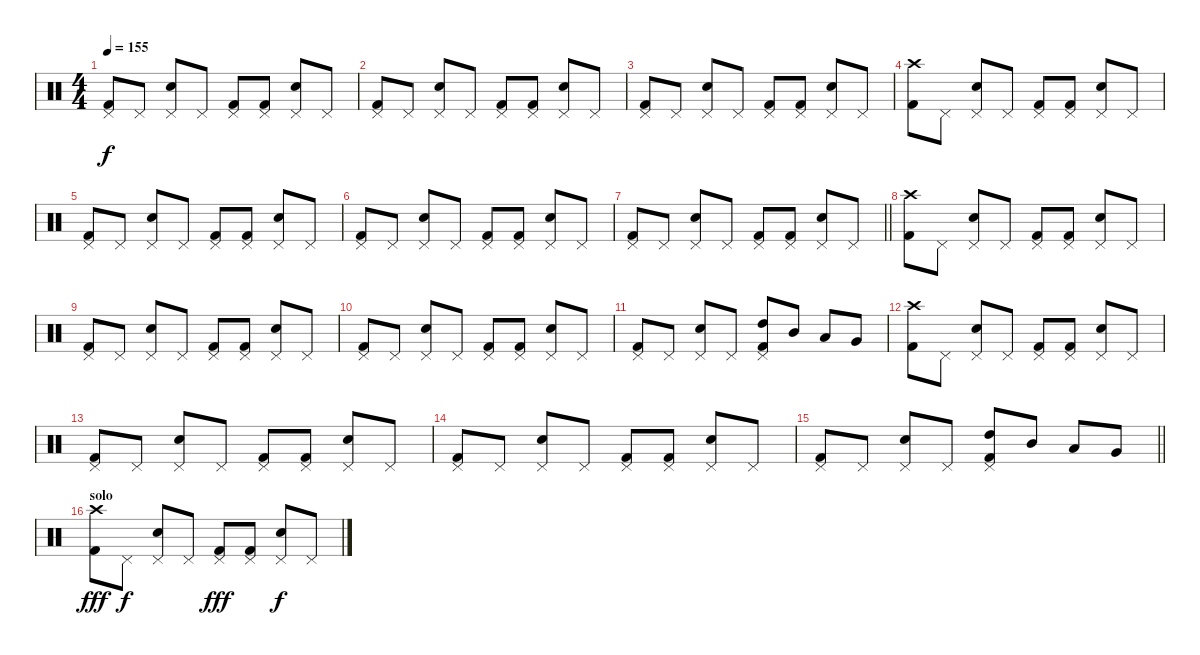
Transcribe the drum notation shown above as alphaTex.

\track "" {instrument percussion}
\staff {score}
\articulation defaults
\ts (4 4)
\tempo 155
\clef neutral
\ks c
("Pedal Hi-Hat (hit)" "Kick (hit) 2").8{dy f} "Pedal Hi-Hat (hit)".8 ("Pedal Hi-Hat (hit)" "Electric Snare (hit)").8 "Pedal Hi-Hat (hit)".8 ("Pedal Hi-Hat (hit)" "Kick (hit) 2").8 ("Pedal Hi-Hat (hit)" "Kick (hit) 2").8 ("Pedal Hi-Hat (hit)" "Electric Snare (hit)").8 "Pedal Hi-Hat (hit)".8 |
("Pedal Hi-Hat (hit)" "Kick (hit) 2").8 "Pedal Hi-Hat (hit)".8 ("Pedal Hi-Hat (hit)" "Electric Snare (hit)").8 "Pedal Hi-Hat (hit)".8 ("Pedal Hi-Hat (hit)" "Kick (hit) 2").8 ("Pedal Hi-Hat (hit)" "Kick (hit) 2").8 ("Pedal Hi-Hat (hit)" "Electric Snare (hit)").8 "Pedal Hi-Hat (hit)".8 |
("Pedal Hi-Hat (hit)" "Kick (hit) 2").8 "Pedal Hi-Hat (hit)".8 ("Pedal Hi-Hat (hit)" "Electric Snare (hit)").8 "Pedal Hi-Hat (hit)".8 ("Pedal Hi-Hat (hit)" "Kick (hit) 2").8 ("Pedal Hi-Hat (hit)" "Kick (hit) 2").8 ("Pedal Hi-Hat (hit)" "Electric Snare (hit)").8 "Pedal Hi-Hat (hit)".8 |
("Crash high (hit)" "Kick (hit) 2").8 "Pedal Hi-Hat (hit)".8 ("Pedal Hi-Hat (hit)" "Electric Snare (hit)").8 "Pedal Hi-Hat (hit)".8 ("Pedal Hi-Hat (hit)" "Kick (hit) 2").8 ("Pedal Hi-Hat (hit)" "Kick (hit) 2").8 ("Pedal Hi-Hat (hit)" "Electric Snare (hit)").8 "Pedal Hi-Hat (hit)".8{txt ""} |
("Pedal Hi-Hat (hit)" "Kick (hit) 2").8 "Pedal Hi-Hat (hit)".8 ("Pedal Hi-Hat (hit)" "Electric Snare (hit)").8 "Pedal Hi-Hat (hit)".8 ("Pedal Hi-Hat (hit)" "Kick (hit) 2").8 ("Pedal Hi-Hat (hit)" "Kick (hit) 2").8 ("Pedal Hi-Hat (hit)" "Electric Snare (hit)").8 "Pedal Hi-Hat (hit)".8 |
("Pedal Hi-Hat (hit)" "Kick (hit) 2").8 "Pedal Hi-Hat (hit)".8 ("Pedal Hi-Hat (hit)" "Electric Snare (hit)").8 "Pedal Hi-Hat (hit)".8 ("Pedal Hi-Hat (hit)" "Kick (hit) 2").8 ("Pedal Hi-Hat (hit)" "Kick (hit) 2").8 ("Pedal Hi-Hat (hit)" "Electric Snare (hit)").8 "Pedal Hi-Hat (hit)".8 |
\barLineRight lightlight
("Pedal Hi-Hat (hit)" "Kick (hit) 2").8 "Pedal Hi-Hat (hit)".8 ("Pedal Hi-Hat (hit)" "Electric Snare (hit)").8 "Pedal Hi-Hat (hit)".8 ("Pedal Hi-Hat (hit)" "Kick (hit) 2").8 ("Pedal Hi-Hat (hit)" "Kick (hit) 2").8 ("Pedal Hi-Hat (hit)" "Electric Snare (hit)").8 "Pedal Hi-Hat (hit)".8 |
("Crash high (hit)" "Kick (hit) 2").8 "Pedal Hi-Hat (hit)".8 ("Pedal Hi-Hat (hit)" "Electric Snare (hit)").8 "Pedal Hi-Hat (hit)".8 ("Pedal Hi-Hat (hit)" "Kick (hit) 2").8 ("Pedal Hi-Hat (hit)" "Kick (hit) 2").8 ("Pedal Hi-Hat (hit)" "Electric Snare (hit)").8 "Pedal Hi-Hat (hit)".8 |
("Pedal Hi-Hat (hit)" "Kick (hit) 2").8 "Pedal Hi-Hat (hit)".8 ("Pedal Hi-Hat (hit)" "Electric Snare (hit)").8 "Pedal Hi-Hat (hit)".8 ("Pedal Hi-Hat (hit)" "Kick (hit) 2").8 ("Pedal Hi-Hat (hit)" "Kick (hit) 2").8 ("Pedal Hi-Hat (hit)" "Electric Snare (hit)").8 "Pedal Hi-Hat (hit)".8 |
("Pedal Hi-Hat (hit)" "Kick (hit) 2").8 "Pedal Hi-Hat (hit)".8 ("Pedal Hi-Hat (hit)" "Electric Snare (hit)").8 "Pedal Hi-Hat (hit)".8 ("Pedal Hi-Hat (hit)" "Kick (hit) 2").8 ("Pedal Hi-Hat (hit)" "Kick (hit) 2").8 ("Pedal Hi-Hat (hit)" "Electric Snare (hit)").8 "Pedal Hi-Hat (hit)".8 |
("Pedal Hi-Hat (hit)" "Kick (hit) 2").8 "Pedal Hi-Hat (hit)".8 ("Pedal Hi-Hat (hit)" "Electric Snare (hit)").8 "Pedal Hi-Hat (hit)".8 ("Pedal Hi-Hat (hit)" "High Tom (hit)" "Kick (hit) 2").8 "Mid Tom (hit)".8 "Low Tom (hit)".8 "Very Low Tom (hit)".8 |
("Crash high (hit)" "Kick (hit) 2").8 "Pedal Hi-Hat (hit)".8 ("Pedal Hi-Hat (hit)" "Electric Snare (hit)").8 "Pedal Hi-Hat (hit)".8 ("Pedal Hi-Hat (hit)" "Kick (hit) 2").8 ("Pedal Hi-Hat (hit)" "Kick (hit) 2").8 ("Pedal Hi-Hat (hit)" "Electric Snare (hit)").8 "Pedal Hi-Hat (hit)".8 |
("Pedal Hi-Hat (hit)" "Kick (hit) 2").8 "Pedal Hi-Hat (hit)".8 ("Pedal Hi-Hat (hit)" "Electric Snare (hit)").8 "Pedal Hi-Hat (hit)".8 ("Pedal Hi-Hat (hit)" "Kick (hit) 2").8 ("Pedal Hi-Hat (hit)" "Kick (hit) 2").8 ("Pedal Hi-Hat (hit)" "Electric Snare (hit)").8 "Pedal Hi-Hat (hit)".8 |
("Pedal Hi-Hat (hit)" "Kick (hit) 2").8 "Pedal Hi-Hat (hit)".8 ("Pedal Hi-Hat (hit)" "Electric Snare (hit)").8 "Pedal Hi-Hat (hit)".8 ("Pedal Hi-Hat (hit)" "Kick (hit) 2").8 ("Pedal Hi-Hat (hit)" "Kick (hit) 2").8 ("Pedal Hi-Hat (hit)" "Electric Snare (hit)").8 "Pedal Hi-Hat (hit)".8 |
\barLineRight lightlight
("Pedal Hi-Hat (hit)" "Kick (hit) 2").8 "Pedal Hi-Hat (hit)".8 ("Pedal Hi-Hat (hit)" "Electric Snare (hit)").8 "Pedal Hi-Hat (hit)".8 ("Pedal Hi-Hat (hit)" "High Tom (hit)" "Kick (hit) 2").8 "Mid Tom (hit)".8 "Low Tom (hit)".8 "Very Low Tom (hit)".8 |
\section ("" "solo")
("Crash high (hit)" "Kick (hit) 2").8{dy fff} "Pedal Hi-Hat (hit)".8{dy f} ("Pedal Hi-Hat (hit)" "Electric Snare (hit)").8 "Pedal Hi-Hat (hit)".8 ("Pedal Hi-Hat (hit)" "Kick (hit) 2").8{dy fff} ("Pedal Hi-Hat (hit)" "Kick (hit) 2").8 ("Pedal Hi-Hat (hit)" "Electric Snare (hit)").8{dy f} "Pedal Hi-Hat (hit)".8
